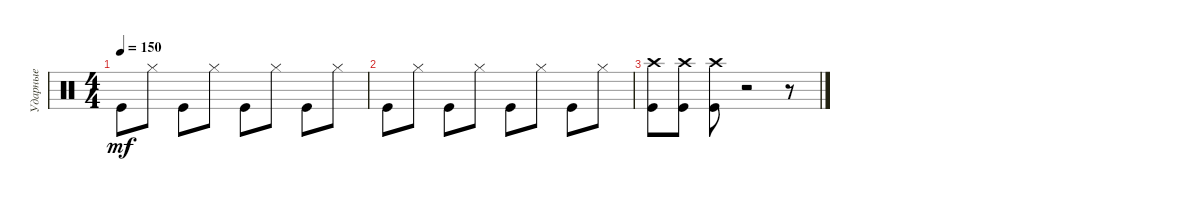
\track ("Ударные" "Ударные") {instrument percussion}
\staff {score}
\articulation defaults
\ts (4 4)
\tempo 150
\clef neutral
\ks c "Kick (hit)".8{dy mf} "Hi-Hat (closed)".8 "Kick (hit)".8 "Hi-Hat (closed)".8 "Kick (hit)".8 "Hi-Hat (closed)".8 "Kick (hit)".8 "Hi-Hat (closed)".8
|
"Kick (hit)".8 "Hi-Hat (closed)".8 "Kick (hit)".8 "Hi-Hat (closed)".8 "Kick (hit)".8 "Hi-Hat (closed)".8 "Kick (hit)".8 "Hi-Hat (closed)".8 |
("Kick (hit)" "Crash high (hit)").8 ("Kick (hit)" "Crash high (hit)").8 ("Kick (hit)" "Crash high (hit)").8 r.2 r.8
